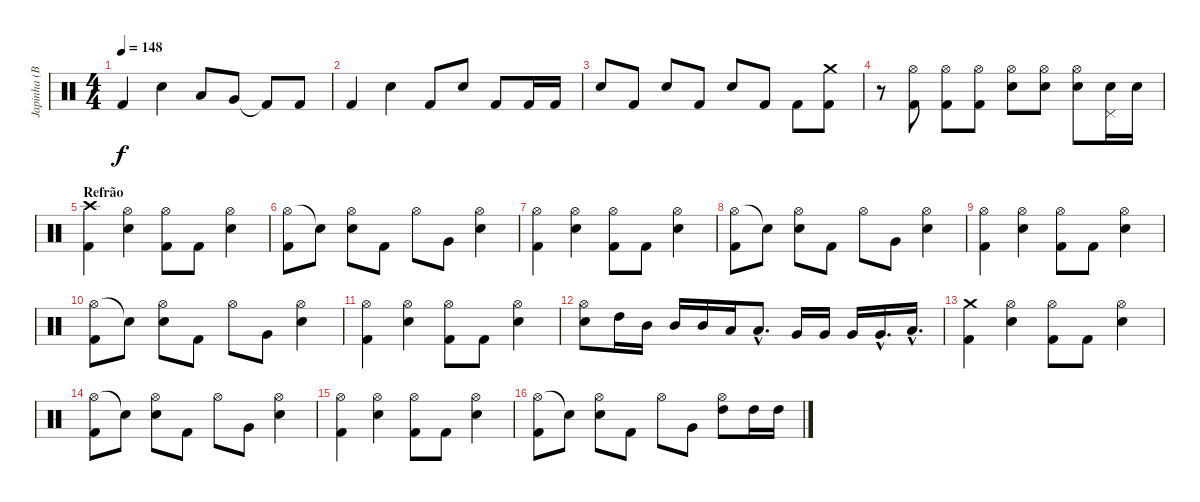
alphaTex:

\track ("Japinha (Bateria)" "Japinha (B") {instrument percussion}
\staff {score}
\articulation defaults
\ts (4 4)
\tempo 148
\clef neutral
\ks c "Kick (hit) 2".4{dy f} "Snare (hit) 2".4 "Low Tom (hit)".8 "Very Low Tom (hit)".8 "Kick (hit) 2"{t}.8 "Kick (hit) 2".8
|
"Kick (hit) 2".4 "Snare (hit) 2".4 "Kick (hit) 2".8 "Snare (hit) 2".8 "Kick (hit) 2".8 "Kick (hit) 2".16 "Kick (hit) 2".16 |
"Snare (hit) 2".8 "Kick (hit) 2".8 "Snare (hit) 2".8 "Kick (hit) 2".8 "Snare (hit) 2".8 "Kick (hit) 2".8 "Kick (hit) 2".8 ("Crash medium (hit)" "Kick (hit) 2").8 |
r.8 ("Hi-Hat (open)" "Kick (hit) 2").8 ("Hi-Hat (open)" "Kick (hit) 2").8 ("Hi-Hat (open)" "Kick (hit) 2").8 ("Hi-Hat (open)" "Snare (hit) 2").8 ("Hi-Hat (open)" "Snare (hit) 2").8 ("Hi-Hat (open)" "Snare (hit) 2").8 ("Pedal Hi-Hat (hit)" "Snare (hit) 2").16 "Snare (hit) 2".16 |
\section ("" "Refrão")
("Crash high (hit)" "Kick (hit) 2").4 ("Hi-Hat (open)" "Snare (hit) 2").4 ("Hi-Hat (open)" "Kick (hit) 2").8 "Kick (hit) 2".8 ("Hi-Hat (open)" "Snare (hit) 2").4 |
("Hi-Hat (open)" "Kick (hit) 2").8 "Snare (hit)"{t}.8 ("Hi-Hat (open)" "Snare (hit) 2").8 "Kick (hit) 2".8 "Hi-Hat (open)".8 "Very Low Tom (hit)".8 ("Hi-Hat (open)" "Snare (hit) 2").4 |
("Hi-Hat (open)" "Kick (hit) 2").4 ("Hi-Hat (open)" "Snare (hit) 2").4 ("Hi-Hat (open)" "Kick (hit) 2").8 "Kick (hit) 2".8 ("Hi-Hat (open)" "Snare (hit) 2").4 |
("Hi-Hat (open)" "Kick (hit) 2").8 "Snare (hit)"{t}.8 ("Hi-Hat (open)" "Snare (hit) 2").8 "Kick (hit) 2".8 "Hi-Hat (open)".8 "Very Low Tom (hit)".8 ("Hi-Hat (open)" "Snare (hit) 2").4 |
("Hi-Hat (open)" "Kick (hit) 2").4 ("Hi-Hat (open)" "Snare (hit) 2").4 ("Hi-Hat (open)" "Kick (hit) 2").8 "Kick (hit) 2".8 ("Hi-Hat (open)" "Snare (hit) 2").4 |
("Hi-Hat (open)" "Kick (hit) 2").8 "Snare (hit)"{t}.8 ("Hi-Hat (open)" "Snare (hit) 2").8 "Kick (hit) 2".8 "Hi-Hat (open)".8 "Very Low Tom (hit)".8 ("Hi-Hat (open)" "Snare (hit) 2").4 |
("Hi-Hat (open)" "Kick (hit) 2").4 ("Hi-Hat (open)" "Snare (hit) 2").4 ("Hi-Hat (open)" "Kick (hit) 2").8 "Kick (hit) 2".8 ("Hi-Hat (open)" "Snare (hit) 2").4 |
("Hi-Hat (open)" "Snare (hit) 2").8 "High Tom (hit)".16 "Mid Tom (hit)".16 "Mid Tom (hit)".16 "Mid Tom (hit)".16 "Low Tom (hit)".16 "Low Tom (hit)"{hac}.8{d} "Very Low Tom (hit)".16 "Very Low Tom (hit)".16 "Very Low Tom (hit)".16 "Very Low Tom (hit)"{hac}.16{d} "Low Floor Tom (hit)"{hac}.16{d} |
("Crash medium (hit)" "Kick (hit) 2").4 ("Hi-Hat (open)" "Snare (hit) 2").4 ("Hi-Hat (open)" "Kick (hit) 2").8 "Kick (hit) 2".8 ("Hi-Hat (open)" "Snare (hit) 2").4 |
("Hi-Hat (open)" "Kick (hit) 2").8 "Snare (hit)"{t}.8 ("Hi-Hat (open)" "Snare (hit) 2").8 "Kick (hit) 2".8 "Hi-Hat (open)".8 "Very Low Tom (hit)".8 ("Hi-Hat (open)" "Snare (hit) 2").4 |
("Hi-Hat (open)" "Kick (hit) 2").4 ("Hi-Hat (open)" "Snare (hit) 2").4 ("Hi-Hat (open)" "Kick (hit) 2").8 "Kick (hit) 2".8 ("Hi-Hat (open)" "Snare (hit) 2").4 |
("Hi-Hat (open)" "Kick (hit) 2").8 "Snare (hit)"{t}.8 ("Hi-Hat (open)" "Snare (hit) 2").8 "Kick (hit) 2".8 "Hi-Hat (open)".8 "Very Low Tom (hit)".8 ("Hi-Hat (open)" "High Tom (hit)").8 "High Tom (hit)".16 "High Tom (hit)".16
